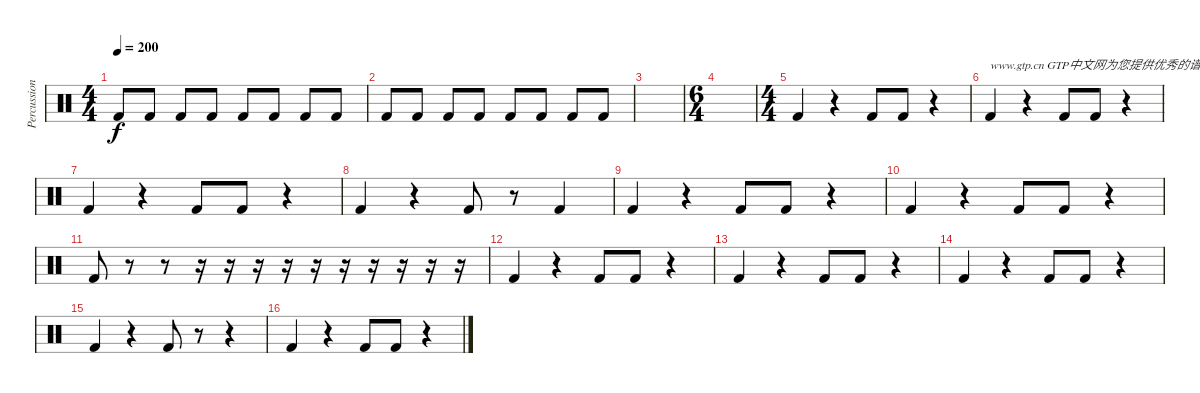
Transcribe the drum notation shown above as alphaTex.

\track ("Percussions 2" "Percussion") {instrument percussion}
\staff {score}
\articulation defaults
\ts (4 4)
\tempo 200
\clef neutral
\ks c "Kick (hit) 2".8{dy f} "Kick (hit) 2".8 "Kick (hit) 2".8 "Kick (hit) 2".8 "Kick (hit) 2".8 "Kick (hit) 2".8 "Kick (hit) 2".8 "Kick (hit) 2".8
|
"Kick (hit) 2".8 "Kick (hit) 2".8 "Kick (hit) 2".8 "Kick (hit) 2".8 "Kick (hit) 2".8 "Kick (hit) 2".8 "Kick (hit) 2".8 "Kick (hit) 2".8 |
|
\ts (6 4)
|
\ts (4 4)
"Kick (hit) 2".4 r.4 "Kick (hit) 2".8 "Kick (hit) 2".8 r.4 |
"Kick (hit) 2".4{txt "www.gtp.cn GTP中文网为您提供优秀的谱子"} r.4 "Kick (hit) 2".8 "Kick (hit) 2".8 r.4 |
"Kick (hit) 2".4 r.4 "Kick (hit) 2".8 "Kick (hit) 2".8 r.4 |
"Kick (hit) 2".4 r.4 "Kick (hit) 2".8 r.8 "Kick (hit) 2".4 |
"Kick (hit) 2".4 r.4 "Kick (hit) 2".8 "Kick (hit) 2".8 r.4 |
"Kick (hit) 2".4 r.4 "Kick (hit) 2".8 "Kick (hit) 2".8 r.4 |
"Kick (hit) 2".8 r.8 r.8 r.16 r.16 r.16 r.16 r.16 r.16 r.16 r.16 r.16 r.16 |
"Kick (hit) 2".4 r.4 "Kick (hit) 2".8 "Kick (hit) 2".8 r.4 |
"Kick (hit) 2".4 r.4 "Kick (hit) 2".8 "Kick (hit) 2".8 r.4 |
"Kick (hit) 2".4 r.4 "Kick (hit) 2".8 "Kick (hit) 2".8 r.4 |
"Kick (hit) 2".4 r.4 "Kick (hit) 2".8 r.8 r.4 |
"Kick (hit) 2".4 r.4 "Kick (hit) 2".8 "Kick (hit) 2".8 r.4
